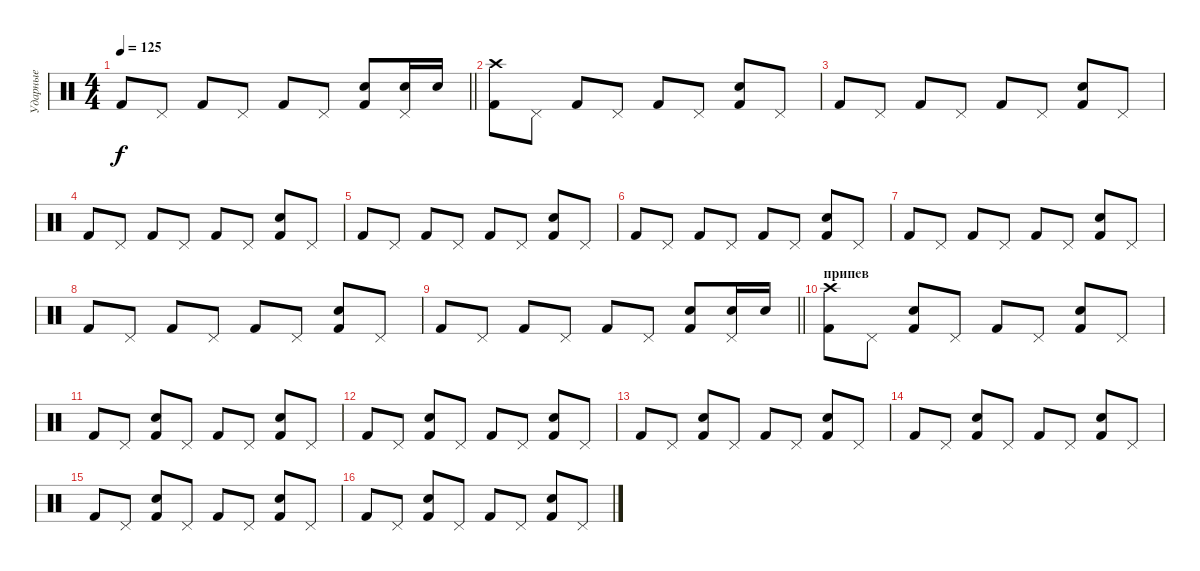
\track ("Ударные" "Ударные") {instrument percussion}
\staff {score}
\articulation defaults
\ts (4 4)
\tempo 125
\clef neutral
\barLineRight lightlight
\ks c "Kick (hit) 2".8{dy f} "Pedal Hi-Hat (hit)".8 "Kick (hit) 2".8 "Pedal Hi-Hat (hit)".8 "Kick (hit) 2".8 "Pedal Hi-Hat (hit)".8
("Kick (hit) 2" "Snare (hit) 2").8 ("Pedal Hi-Hat (hit)" "Snare (hit) 2").16 "Snare (hit) 2".16 |
("Kick (hit) 2" "Crash high (hit)").8 "Pedal Hi-Hat (hit)".8 "Kick (hit) 2".8 "Pedal Hi-Hat (hit)".8 "Kick (hit) 2".8 "Pedal Hi-Hat (hit)".8 ("Kick (hit) 2" "Snare (hit) 2").8 "Pedal Hi-Hat (hit)".8 |
"Kick (hit) 2".8 "Pedal Hi-Hat (hit)".8 "Kick (hit) 2".8 "Pedal Hi-Hat (hit)".8 "Kick (hit) 2".8 "Pedal Hi-Hat (hit)".8 ("Kick (hit) 2" "Snare (hit) 2").8 "Pedal Hi-Hat (hit)".8 |
"Kick (hit) 2".8 "Pedal Hi-Hat (hit)".8 "Kick (hit) 2".8 "Pedal Hi-Hat (hit)".8 "Kick (hit) 2".8 "Pedal Hi-Hat (hit)".8 ("Kick (hit) 2" "Snare (hit) 2").8 "Pedal Hi-Hat (hit)".8 |
"Kick (hit) 2".8 "Pedal Hi-Hat (hit)".8 "Kick (hit) 2".8 "Pedal Hi-Hat (hit)".8 "Kick (hit) 2".8 "Pedal Hi-Hat (hit)".8 ("Kick (hit) 2" "Snare (hit) 2").8 "Pedal Hi-Hat (hit)".8 |
"Kick (hit) 2".8 "Pedal Hi-Hat (hit)".8 "Kick (hit) 2".8 "Pedal Hi-Hat (hit)".8 "Kick (hit) 2".8 "Pedal Hi-Hat (hit)".8 ("Kick (hit) 2" "Snare (hit) 2").8 "Pedal Hi-Hat (hit)".8 |
"Kick (hit) 2".8 "Pedal Hi-Hat (hit)".8 "Kick (hit) 2".8 "Pedal Hi-Hat (hit)".8 "Kick (hit) 2".8 "Pedal Hi-Hat (hit)".8 ("Kick (hit) 2" "Snare (hit) 2").8 "Pedal Hi-Hat (hit)".8 |
"Kick (hit) 2".8 "Pedal Hi-Hat (hit)".8 "Kick (hit) 2".8 "Pedal Hi-Hat (hit)".8 "Kick (hit) 2".8 "Pedal Hi-Hat (hit)".8 ("Kick (hit) 2" "Snare (hit) 2").8 "Pedal Hi-Hat (hit)".8 |
\barLineRight lightlight "Kick (hit) 2".8 "Pedal Hi-Hat (hit)".8 "Kick (hit) 2".8 "Pedal Hi-Hat (hit)".8 "Kick (hit) 2".8 "Pedal Hi-Hat (hit)".8
("Kick (hit) 2" "Snare (hit) 2").8 ("Pedal Hi-Hat (hit)" "Snare (hit) 2").16 "Snare (hit) 2".16 |
\section ("" "припев")
("Kick (hit) 2" "Crash high (hit)").8 "Pedal Hi-Hat (hit)".8 ("Kick (hit) 2" "Snare (hit) 2").8 "Pedal Hi-Hat (hit)".8 "Kick (hit) 2".8 "Pedal Hi-Hat (hit)".8 ("Kick (hit) 2" "Snare (hit) 2").8 "Pedal Hi-Hat (hit)".8 |
"Kick (hit) 2".8 "Pedal Hi-Hat (hit)".8 ("Kick (hit) 2" "Snare (hit) 2").8 "Pedal Hi-Hat (hit)".8 "Kick (hit) 2".8 "Pedal Hi-Hat (hit)".8 ("Kick (hit) 2" "Snare (hit) 2").8 "Pedal Hi-Hat (hit)".8 |
"Kick (hit) 2".8 "Pedal Hi-Hat (hit)".8 ("Kick (hit) 2" "Snare (hit) 2").8 "Pedal Hi-Hat (hit)".8 "Kick (hit) 2".8 "Pedal Hi-Hat (hit)".8 ("Kick (hit) 2" "Snare (hit) 2").8 "Pedal Hi-Hat (hit)".8 |
"Kick (hit) 2".8 "Pedal Hi-Hat (hit)".8 ("Kick (hit) 2" "Snare (hit) 2").8 "Pedal Hi-Hat (hit)".8 "Kick (hit) 2".8 "Pedal Hi-Hat (hit)".8 ("Kick (hit) 2" "Snare (hit) 2").8 "Pedal Hi-Hat (hit)".8 |
"Kick (hit) 2".8 "Pedal Hi-Hat (hit)".8 ("Kick (hit) 2" "Snare (hit) 2").8 "Pedal Hi-Hat (hit)".8 "Kick (hit) 2".8 "Pedal Hi-Hat (hit)".8 ("Kick (hit) 2" "Snare (hit) 2").8 "Pedal Hi-Hat (hit)".8 |
"Kick (hit) 2".8 "Pedal Hi-Hat (hit)".8 ("Kick (hit) 2" "Snare (hit) 2").8 "Pedal Hi-Hat (hit)".8 "Kick (hit) 2".8 "Pedal Hi-Hat (hit)".8 ("Kick (hit) 2" "Snare (hit) 2").8 "Pedal Hi-Hat (hit)".8 |
"Kick (hit) 2".8 "Pedal Hi-Hat (hit)".8 ("Kick (hit) 2" "Snare (hit) 2").8 "Pedal Hi-Hat (hit)".8 "Kick (hit) 2".8 "Pedal Hi-Hat (hit)".8 ("Kick (hit) 2" "Snare (hit) 2").8 "Pedal Hi-Hat (hit)".8
